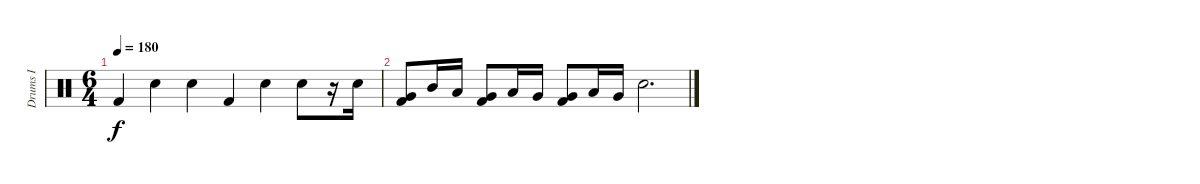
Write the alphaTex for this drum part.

\track ("Drums I" "Drums I") {instrument percussion}
\staff {score}
\articulation defaults
\ts (6 4)
\tempo 180
\clef neutral
\ks c "Kick (hit) 2".4{dy f} "Electric Snare (hit)".4 "Electric Snare (hit)".4 "Kick (hit) 2".4 "Electric Snare (hit)".4 "Electric Snare (hit)".8
r.16 "Electric Snare (hit)".16 |
("Very Low Tom (hit)" "Kick (hit) 2").8 "Mid Tom (hit)".16 "Low Tom (hit)".16 ("Very Low Tom (hit)" "Kick (hit) 2").8 "Low Tom (hit)".16 "Very Low Tom (hit)".16 ("Very Low Tom (hit)" "Kick (hit) 2").8 "Low Tom (hit)".16 "Very Low Tom (hit)".16 "Electric Snare (hit)".2{d}
